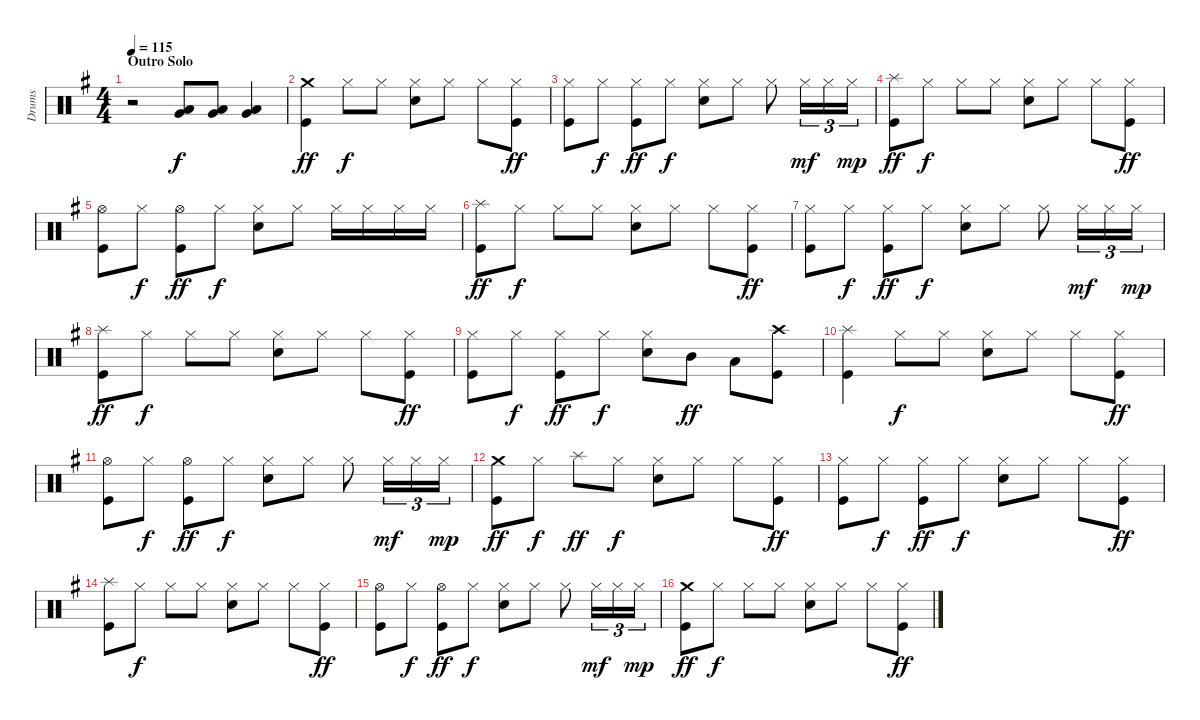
\track ("Drums" "Drums") {instrument percussion}
\staff {score}
\articulation defaults
\ts (4 4)
\section ("" "Outro Solo")
\tempo 115
\clef neutral
\ks g
r.2{dy ff} ("Low Tom (hit)" "Very Low Tom (hit)").8{dy f volume 14} ("Low Tom (hit)" "Very Low Tom (hit)").8 ("Very Low Tom (hit)" "Low Floor Tom (hit)").4 |
("Crash medium (hit)" "Kick (hit)").4{dy ff} "Hi-Hat (closed)".8{dy f} "Hi-Hat (closed)".8 ("Hi-Hat (closed)" "Electric Snare (hit)").8 "Hi-Hat (closed)".8 "Hi-Hat (closed)".8 ("Hi-Hat (closed)" "Kick (hit)").8{dy ff} |
("Hi-Hat (closed)" "Kick (hit)").8 "Hi-Hat (closed)".8{dy f} ("Hi-Hat (closed)" "Kick (hit)").8{dy ff} "Hi-Hat (closed)".8{dy f} ("Hi-Hat (closed)" "Electric Snare (hit)").8 "Hi-Hat (closed)".8 "Hi-Hat (closed)".8 "Hi-Hat (closed)".16{tu (3 2) dy mf} "Hi-Hat (closed)".16{tu (3 2)} "Hi-Hat (closed)".16{tu (3 2) dy mp} |
("Splash (hit)" "Kick (hit)").8{dy ff} "Hi-Hat (closed)".8{dy f} "Hi-Hat (closed)".8 "Hi-Hat (closed)".8 ("Hi-Hat (closed)" "Electric Snare (hit)").8 "Hi-Hat (closed)".8 "Hi-Hat (closed)".8 ("Hi-Hat (closed)" "Kick (hit)").8{dy ff} |
("Hi-Hat (open)" "Kick (hit)").8 "Hi-Hat (closed)".8{dy f} ("Hi-Hat (open)" "Kick (hit)").8{dy ff} "Hi-Hat (closed)".8{dy f} ("Hi-Hat (closed)" "Electric Snare (hit)").8 "Hi-Hat (closed)".8 "Hi-Hat (closed)".16 "Hi-Hat (closed)".16 "Hi-Hat (closed)".16 "Hi-Hat (closed)".16 |
("Splash (hit)" "Kick (hit)").8{dy ff} "Hi-Hat (closed)".8{dy f} "Hi-Hat (closed)".8 "Hi-Hat (closed)".8 ("Hi-Hat (closed)" "Electric Snare (hit)").8 "Hi-Hat (closed)".8 "Hi-Hat (closed)".8 ("Hi-Hat (closed)" "Kick (hit)").8{dy ff} |
("Hi-Hat (closed)" "Kick (hit)").8 "Hi-Hat (closed)".8{dy f} ("Hi-Hat (closed)" "Kick (hit)").8{dy ff} "Hi-Hat (closed)".8{dy f} ("Hi-Hat (closed)" "Electric Snare (hit)").8 "Hi-Hat (closed)".8 "Hi-Hat (closed)".8 "Hi-Hat (closed)".16{tu (3 2) dy mf} "Hi-Hat (closed)".16{tu (3 2)} "Hi-Hat (closed)".16{tu (3 2) dy mp} |
("Splash (hit)" "Kick (hit)").8{dy ff} "Hi-Hat (closed)".8{dy f} "Hi-Hat (closed)".8 "Hi-Hat (closed)".8 ("Hi-Hat (closed)" "Electric Snare (hit)").8 "Hi-Hat (closed)".8 "Hi-Hat (closed)".8 ("Hi-Hat (closed)" "Kick (hit)").8{dy ff} |
("Hi-Hat (closed)" "Kick (hit)").8 "Hi-Hat (closed)".8{dy f} ("Hi-Hat (closed)" "Kick (hit)").8{dy ff} "Hi-Hat (closed)".8{dy f} ("Hi-Hat (closed)" "Electric Snare (hit)").8 "Mid Tom (hit)".8{dy ff} "Low Tom (hit)".8 ("Crash high (hit)" "Kick (hit)").8 |
("Splash (hit)" "Kick (hit)").4 "Hi-Hat (closed)".8{dy f} "Hi-Hat (closed)".8 ("Hi-Hat (closed)" "Electric Snare (hit)").8 "Hi-Hat (closed)".8 "Hi-Hat (closed)".8 ("Hi-Hat (closed)" "Kick (hit)").8{dy ff} |
("Hi-Hat (open)" "Kick (hit)").8 "Hi-Hat (closed)".8{dy f} ("Hi-Hat (open)" "Kick (hit)").8{dy ff} "Hi-Hat (closed)".8{dy f} ("Hi-Hat (closed)" "Electric Snare (hit)").8 "Hi-Hat (closed)".8 "Hi-Hat (closed)".8 "Hi-Hat (closed)".16{tu (3 2) dy mf} "Hi-Hat (closed)".16{tu (3 2)} "Hi-Hat (closed)".16{tu (3 2) dy mp} |
("Crash medium (hit)" "Kick (hit)").8{dy ff} "Hi-Hat (closed)".8{dy f} "Splash (hit)".8{dy ff} "Hi-Hat (closed)".8{dy f} ("Hi-Hat (closed)" "Electric Snare (hit)").8 "Hi-Hat (closed)".8 "Hi-Hat (closed)".8 ("Hi-Hat (closed)" "Kick (hit)").8{dy ff} |
("Hi-Hat (closed)" "Kick (hit)").8 "Hi-Hat (closed)".8{dy f} ("Hi-Hat (closed)" "Kick (hit)").8{dy ff} "Hi-Hat (closed)".8{dy f} ("Hi-Hat (closed)" "Electric Snare (hit)").8 "Hi-Hat (closed)".8 "Hi-Hat (closed)".8 ("Hi-Hat (closed)" "Kick (hit)").8{dy ff} |
("Splash (hit)" "Kick (hit)").8 "Hi-Hat (closed)".8{dy f} "Hi-Hat (closed)".8 "Hi-Hat (closed)".8 ("Hi-Hat (closed)" "Electric Snare (hit)").8 "Hi-Hat (closed)".8 "Hi-Hat (closed)".8 ("Hi-Hat (closed)" "Kick (hit)").8{dy ff} |
("Hi-Hat (open)" "Kick (hit)").8 "Hi-Hat (closed)".8{dy f} ("Hi-Hat (open)" "Kick (hit)").8{dy ff} "Hi-Hat (closed)".8{dy f} ("Hi-Hat (closed)" "Electric Snare (hit)").8 "Hi-Hat (closed)".8 "Hi-Hat (closed)".8 "Hi-Hat (closed)".16{tu (3 2) dy mf} "Hi-Hat (closed)".16{tu (3 2)} "Hi-Hat (closed)".16{tu (3 2) dy mp} |
("Crash medium (hit)" "Kick (hit)").8{dy ff} "Hi-Hat (closed)".8{dy f} "Hi-Hat (closed)".8 "Hi-Hat (closed)".8 ("Hi-Hat (closed)" "Electric Snare (hit)").8 "Hi-Hat (closed)".8 "Hi-Hat (closed)".8 ("Hi-Hat (closed)" "Kick (hit)").8{dy ff}
